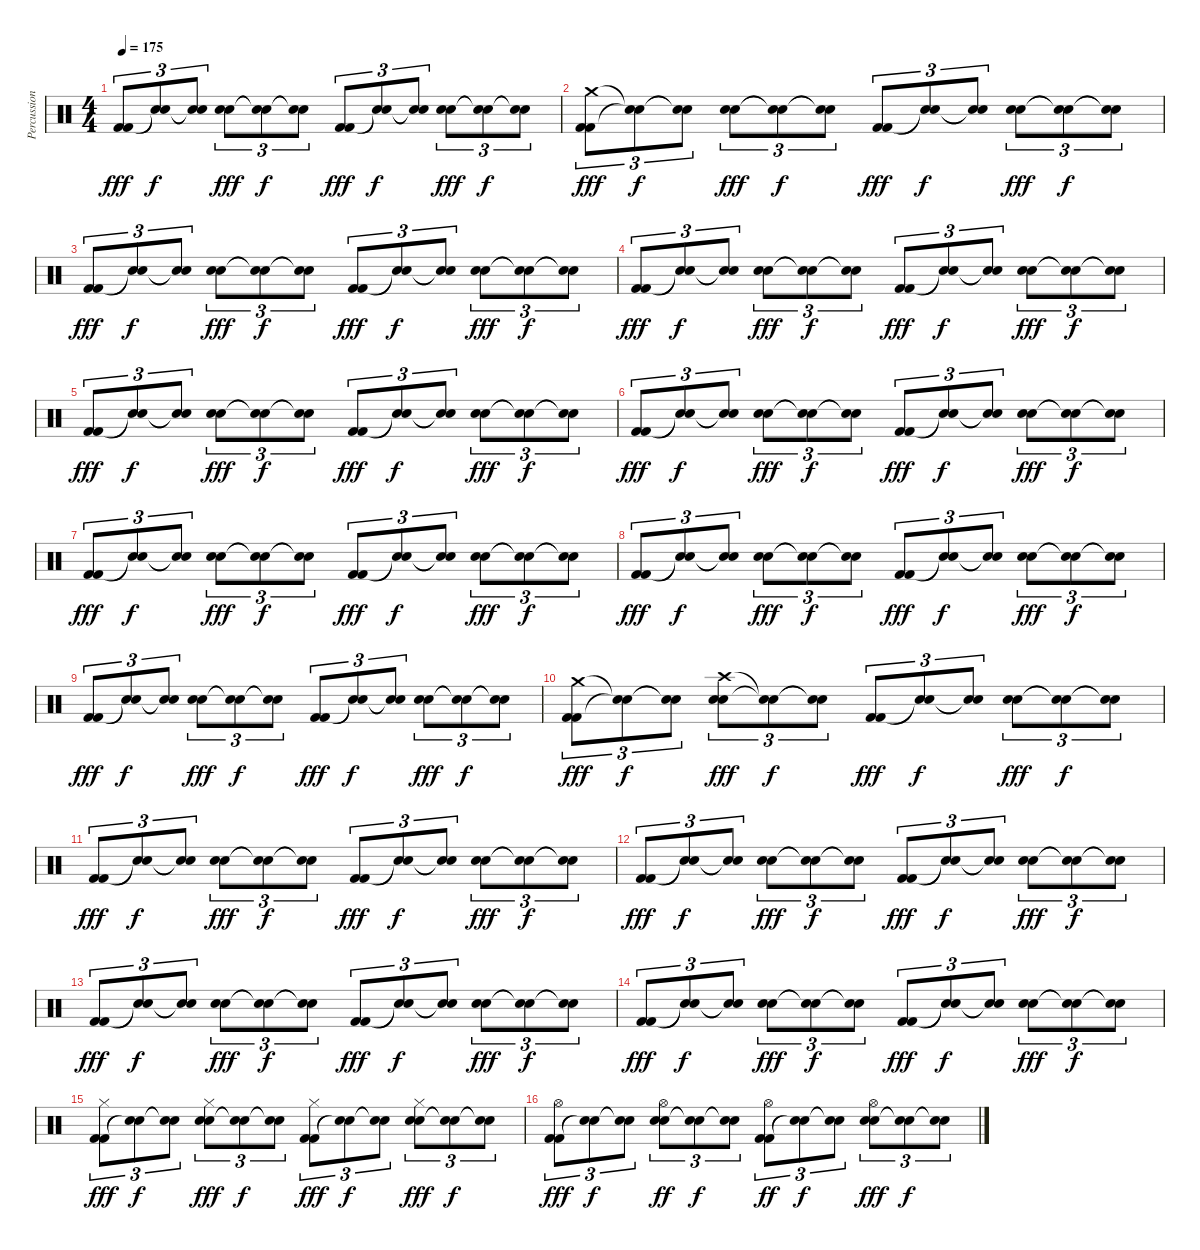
\track ("Percussion" "Percussion") {instrument percussion}
\staff {score}
\articulation defaults
\ts (4 4)
\tempo 175
\clef neutral
\ks c
("Kick (hit) 2" "Kick (hit) 2").8{tu (3 2) dy fff} ("Snare (hit)"{t} "Snare (hit)"{t}).8{tu (3 2) dy f} ("Snare (hit)"{t} "Snare (hit)"{t}).8{tu (3 2)} ("Electric Snare (hit)" "Electric Snare (hit)").8{tu (3 2) dy fff} ("Snare (hit)"{t} "Snare (hit)"{t}).8{tu (3 2) dy f} ("Snare (hit)"{t} "Snare (hit)"{t}).8{tu (3 2)} ("Kick (hit) 2" "Kick (hit) 2").8{tu (3 2) dy fff} ("Snare (hit)"{t} "Snare (hit)"{t}).8{tu (3 2) dy f} ("Snare (hit)"{t} "Snare (hit)"{t}).8{tu (3 2)} ("Electric Snare (hit)" "Electric Snare (hit)").8{tu (3 2) dy fff} ("Snare (hit)"{t} "Snare (hit)"{t}).8{tu (3 2) dy f} ("Snare (hit)"{t} "Snare (hit)"{t}).8{tu (3 2)} |
("Kick (hit) 2" "Crash medium (hit)" "Kick (hit) 2").8{tu (3 2) dy fff} ("Snare (hit)"{t} "Snare (hit)"{t}).8{tu (3 2) dy f} ("Snare (hit)"{t} "Snare (hit)"{t}).8{tu (3 2)} ("Electric Snare (hit)" "Electric Snare (hit)").8{tu (3 2) dy fff} ("Snare (hit)"{t} "Snare (hit)"{t}).8{tu (3 2) dy f} ("Snare (hit)"{t} "Snare (hit)"{t}).8{tu (3 2)} ("Kick (hit) 2" "Kick (hit) 2").8{tu (3 2) dy fff} ("Snare (hit)"{t} "Snare (hit)"{t}).8{tu (3 2) dy f} ("Snare (hit)"{t} "Snare (hit)"{t}).8{tu (3 2)} ("Electric Snare (hit)" "Electric Snare (hit)").8{tu (3 2) dy fff} ("Snare (hit)"{t} "Snare (hit)"{t}).8{tu (3 2) dy f} ("Snare (hit)"{t} "Snare (hit)"{t}).8{tu (3 2)} |
("Kick (hit) 2" "Kick (hit) 2").8{tu (3 2) dy fff} ("Snare (hit)"{t} "Snare (hit)"{t}).8{tu (3 2) dy f} ("Snare (hit)"{t} "Snare (hit)"{t}).8{tu (3 2)} ("Electric Snare (hit)" "Electric Snare (hit)").8{tu (3 2) dy fff} ("Snare (hit)"{t} "Snare (hit)"{t}).8{tu (3 2) dy f} ("Snare (hit)"{t} "Snare (hit)"{t}).8{tu (3 2)} ("Kick (hit) 2" "Kick (hit) 2").8{tu (3 2) dy fff} ("Snare (hit)"{t} "Snare (hit)"{t}).8{tu (3 2) dy f} ("Snare (hit)"{t} "Snare (hit)"{t}).8{tu (3 2)} ("Electric Snare (hit)" "Electric Snare (hit)").8{tu (3 2) dy fff} ("Snare (hit)"{t} "Snare (hit)"{t}).8{tu (3 2) dy f} ("Snare (hit)"{t} "Snare (hit)"{t}).8{tu (3 2)} |
("Kick (hit) 2" "Kick (hit) 2").8{tu (3 2) dy fff} ("Snare (hit)"{t} "Snare (hit)"{t}).8{tu (3 2) dy f} ("Snare (hit)"{t} "Snare (hit)"{t}).8{tu (3 2)} ("Electric Snare (hit)" "Electric Snare (hit)").8{tu (3 2) dy fff} ("Snare (hit)"{t} "Snare (hit)"{t}).8{tu (3 2) dy f} ("Snare (hit)"{t} "Snare (hit)"{t}).8{tu (3 2)} ("Kick (hit) 2" "Kick (hit) 2").8{tu (3 2) dy fff} ("Snare (hit)"{t} "Snare (hit)"{t}).8{tu (3 2) dy f} ("Snare (hit)"{t} "Snare (hit)"{t}).8{tu (3 2)} ("Electric Snare (hit)" "Electric Snare (hit)").8{tu (3 2) dy fff} ("Snare (hit)"{t} "Snare (hit)"{t}).8{tu (3 2) dy f} ("Snare (hit)"{t} "Snare (hit)"{t}).8{tu (3 2)} |
("Kick (hit) 2" "Kick (hit) 2").8{tu (3 2) dy fff} ("Snare (hit)"{t} "Snare (hit)"{t}).8{tu (3 2) dy f} ("Snare (hit)"{t} "Snare (hit)"{t}).8{tu (3 2)} ("Electric Snare (hit)" "Electric Snare (hit)").8{tu (3 2) dy fff} ("Snare (hit)"{t} "Snare (hit)"{t}).8{tu (3 2) dy f} ("Snare (hit)"{t} "Snare (hit)"{t}).8{tu (3 2)} ("Kick (hit) 2" "Kick (hit) 2").8{tu (3 2) dy fff} ("Snare (hit)"{t} "Snare (hit)"{t}).8{tu (3 2) dy f} ("Snare (hit)"{t} "Snare (hit)"{t}).8{tu (3 2)} ("Electric Snare (hit)" "Electric Snare (hit)").8{tu (3 2) dy fff} ("Snare (hit)"{t} "Snare (hit)"{t}).8{tu (3 2) dy f} ("Snare (hit)"{t} "Snare (hit)"{t}).8{tu (3 2)} |
("Kick (hit) 2" "Kick (hit) 2").8{tu (3 2) dy fff} ("Snare (hit)"{t} "Snare (hit)"{t}).8{tu (3 2) dy f} ("Snare (hit)"{t} "Snare (hit)"{t}).8{tu (3 2)} ("Electric Snare (hit)" "Electric Snare (hit)").8{tu (3 2) dy fff} ("Snare (hit)"{t} "Snare (hit)"{t}).8{tu (3 2) dy f} ("Snare (hit)"{t} "Snare (hit)"{t}).8{tu (3 2)} ("Kick (hit) 2" "Kick (hit) 2").8{tu (3 2) dy fff} ("Snare (hit)"{t} "Snare (hit)"{t}).8{tu (3 2) dy f} ("Snare (hit)"{t} "Snare (hit)"{t}).8{tu (3 2)} ("Electric Snare (hit)" "Electric Snare (hit)").8{tu (3 2) dy fff} ("Snare (hit)"{t} "Snare (hit)"{t}).8{tu (3 2) dy f} ("Snare (hit)"{t} "Snare (hit)"{t}).8{tu (3 2)} |
("Kick (hit) 2" "Kick (hit) 2").8{tu (3 2) dy fff} ("Snare (hit)"{t} "Snare (hit)"{t}).8{tu (3 2) dy f} ("Snare (hit)"{t} "Snare (hit)"{t}).8{tu (3 2)} ("Electric Snare (hit)" "Electric Snare (hit)").8{tu (3 2) dy fff} ("Snare (hit)"{t} "Snare (hit)"{t}).8{tu (3 2) dy f} ("Snare (hit)"{t} "Snare (hit)"{t}).8{tu (3 2)} ("Kick (hit) 2" "Kick (hit) 2").8{tu (3 2) dy fff} ("Snare (hit)"{t} "Snare (hit)"{t}).8{tu (3 2) dy f} ("Snare (hit)"{t} "Snare (hit)"{t}).8{tu (3 2)} ("Electric Snare (hit)" "Electric Snare (hit)").8{tu (3 2) dy fff} ("Snare (hit)"{t} "Snare (hit)"{t}).8{tu (3 2) dy f} ("Snare (hit)"{t} "Snare (hit)"{t}).8{tu (3 2)} |
("Kick (hit) 2" "Kick (hit) 2").8{tu (3 2) dy fff} ("Snare (hit)"{t} "Snare (hit)"{t}).8{tu (3 2) dy f} ("Snare (hit)"{t} "Snare (hit)"{t}).8{tu (3 2)} ("Electric Snare (hit)" "Electric Snare (hit)").8{tu (3 2) dy fff} ("Snare (hit)"{t} "Snare (hit)"{t}).8{tu (3 2) dy f} ("Snare (hit)"{t} "Snare (hit)"{t}).8{tu (3 2)} ("Kick (hit) 2" "Kick (hit) 2").8{tu (3 2) dy fff} ("Snare (hit)"{t} "Snare (hit)"{t}).8{tu (3 2) dy f} ("Snare (hit)"{t} "Snare (hit)"{t}).8{tu (3 2)} ("Electric Snare (hit)" "Electric Snare (hit)").8{tu (3 2) dy fff} ("Snare (hit)"{t} "Snare (hit)"{t}).8{tu (3 2) dy f} ("Snare (hit)"{t} "Snare (hit)"{t}).8{tu (3 2)} |
("Kick (hit) 2" "Kick (hit) 2").8{tu (3 2) dy fff} ("Snare (hit)"{t} "Snare (hit)"{t}).8{tu (3 2) dy f} ("Snare (hit)"{t} "Snare (hit)"{t}).8{tu (3 2)} ("Electric Snare (hit)" "Electric Snare (hit)").8{tu (3 2) dy fff} ("Snare (hit)"{t} "Snare (hit)"{t}).8{tu (3 2) dy f} ("Snare (hit)"{t} "Snare (hit)"{t}).8{tu (3 2)} ("Kick (hit) 2" "Kick (hit) 2").8{tu (3 2) dy fff} ("Snare (hit)"{t} "Snare (hit)"{t}).8{tu (3 2) dy f} ("Snare (hit)"{t} "Snare (hit)"{t}).8{tu (3 2)} ("Electric Snare (hit)" "Electric Snare (hit)").8{tu (3 2) dy fff} ("Snare (hit)"{t} "Snare (hit)"{t}).8{tu (3 2) dy f} ("Snare (hit)"{t} "Snare (hit)"{t}).8{tu (3 2)} |
("Kick (hit) 2" "Crash medium (hit)" "Kick (hit) 2").8{tu (3 2) dy fff} ("Snare (hit)"{t} "Snare (hit)"{t}).8{tu (3 2) dy f} ("Snare (hit)"{t} "Snare (hit)"{t}).8{tu (3 2)} ("Electric Snare (hit)" "Crash high (hit)" "Electric Snare (hit)").8{tu (3 2) dy fff} ("Snare (hit)"{t} "Snare (hit)"{t}).8{tu (3 2) dy f} ("Snare (hit)"{t} "Snare (hit)"{t}).8{tu (3 2)} ("Kick (hit) 2" "Kick (hit) 2").8{tu (3 2) dy fff} ("Snare (hit)"{t} "Snare (hit)"{t}).8{tu (3 2) dy f} ("Snare (hit)"{t} "Snare (hit)"{t}).8{tu (3 2)} ("Electric Snare (hit)" "Electric Snare (hit)").8{tu (3 2) dy fff} ("Snare (hit)"{t} "Snare (hit)"{t}).8{tu (3 2) dy f} ("Snare (hit)"{t} "Snare (hit)"{t}).8{tu (3 2)} |
("Kick (hit) 2" "Kick (hit) 2").8{tu (3 2) dy fff} ("Snare (hit)"{t} "Snare (hit)"{t}).8{tu (3 2) dy f} ("Snare (hit)"{t} "Snare (hit)"{t}).8{tu (3 2)} ("Electric Snare (hit)" "Electric Snare (hit)").8{tu (3 2) dy fff} ("Snare (hit)"{t} "Snare (hit)"{t}).8{tu (3 2) dy f} ("Snare (hit)"{t} "Snare (hit)"{t}).8{tu (3 2)} ("Kick (hit) 2" "Kick (hit) 2").8{tu (3 2) dy fff} ("Snare (hit)"{t} "Snare (hit)"{t}).8{tu (3 2) dy f} ("Snare (hit)"{t} "Snare (hit)"{t}).8{tu (3 2)} ("Electric Snare (hit)" "Electric Snare (hit)").8{tu (3 2) dy fff} ("Snare (hit)"{t} "Snare (hit)"{t}).8{tu (3 2) dy f} ("Snare (hit)"{t} "Snare (hit)"{t}).8{tu (3 2)} |
("Kick (hit) 2" "Kick (hit) 2").8{tu (3 2) dy fff} ("Snare (hit)"{t} "Snare (hit)"{t}).8{tu (3 2) dy f} ("Snare (hit)"{t} "Snare (hit)"{t}).8{tu (3 2)} ("Electric Snare (hit)" "Electric Snare (hit)").8{tu (3 2) dy fff} ("Snare (hit)"{t} "Snare (hit)"{t}).8{tu (3 2) dy f} ("Snare (hit)"{t} "Snare (hit)"{t}).8{tu (3 2)} ("Kick (hit) 2" "Kick (hit) 2").8{tu (3 2) dy fff} ("Snare (hit)"{t} "Snare (hit)"{t}).8{tu (3 2) dy f} ("Snare (hit)"{t} "Snare (hit)"{t}).8{tu (3 2)} ("Electric Snare (hit)" "Electric Snare (hit)").8{tu (3 2) dy fff} ("Snare (hit)"{t} "Snare (hit)"{t}).8{tu (3 2) dy f} ("Snare (hit)"{t} "Snare (hit)"{t}).8{tu (3 2)} |
("Kick (hit) 2" "Kick (hit) 2").8{tu (3 2) dy fff} ("Snare (hit)"{t} "Snare (hit)"{t}).8{tu (3 2) dy f} ("Snare (hit)"{t} "Snare (hit)"{t}).8{tu (3 2)} ("Electric Snare (hit)" "Electric Snare (hit)").8{tu (3 2) dy fff} ("Snare (hit)"{t} "Snare (hit)"{t}).8{tu (3 2) dy f} ("Snare (hit)"{t} "Snare (hit)"{t}).8{tu (3 2)} ("Kick (hit) 2" "Kick (hit) 2").8{tu (3 2) dy fff} ("Snare (hit)"{t} "Snare (hit)"{t}).8{tu (3 2) dy f} ("Snare (hit)"{t} "Snare (hit)"{t}).8{tu (3 2)} ("Electric Snare (hit)" "Electric Snare (hit)").8{tu (3 2) dy fff} ("Snare (hit)"{t} "Snare (hit)"{t}).8{tu (3 2) dy f} ("Snare (hit)"{t} "Snare (hit)"{t}).8{tu (3 2)} |
("Kick (hit) 2" "Kick (hit) 2").8{tu (3 2) dy fff} ("Snare (hit)"{t} "Snare (hit)"{t}).8{tu (3 2) dy f} ("Snare (hit)"{t} "Snare (hit)"{t}).8{tu (3 2)} ("Electric Snare (hit)" "Electric Snare (hit)").8{tu (3 2) dy fff} ("Snare (hit)"{t} "Snare (hit)"{t}).8{tu (3 2) dy f} ("Snare (hit)"{t} "Snare (hit)"{t}).8{tu (3 2)} ("Kick (hit) 2" "Kick (hit) 2").8{tu (3 2) dy fff} ("Snare (hit)"{t} "Snare (hit)"{t}).8{tu (3 2) dy f} ("Snare (hit)"{t} "Snare (hit)"{t}).8{tu (3 2)} ("Electric Snare (hit)" "Electric Snare (hit)").8{tu (3 2) dy fff} ("Snare (hit)"{t} "Snare (hit)"{t}).8{tu (3 2) dy f} ("Snare (hit)"{t} "Snare (hit)"{t}).8{tu (3 2)} |
("Kick (hit) 2" "Kick (hit) 2" "Hi-Hat (closed)").8{tu (3 2) dy fff} ("Snare (hit)"{t} "Snare (hit)"{t}).8{tu (3 2) dy f} ("Snare (hit)"{t} "Snare (hit)"{t}).8{tu (3 2)} ("Electric Snare (hit)" "Electric Snare (hit)" "Hi-Hat (closed)").8{tu (3 2) dy fff} ("Snare (hit)"{t} "Snare (hit)"{t}).8{tu (3 2) dy f} ("Snare (hit)"{t} "Snare (hit)"{t}).8{tu (3 2)} ("Kick (hit) 2" "Kick (hit) 2" "Hi-Hat (closed)").8{tu (3 2) dy fff} ("Snare (hit)"{t} "Snare (hit)"{t}).8{tu (3 2) dy f} ("Snare (hit)"{t} "Snare (hit)"{t}).8{tu (3 2)} ("Electric Snare (hit)" "Electric Snare (hit)" "Hi-Hat (closed)").8{tu (3 2) dy fff} ("Snare (hit)"{t} "Snare (hit)"{t}).8{tu (3 2) dy f} ("Snare (hit)"{t} "Snare (hit)"{t}).8{tu (3 2)} |
("Kick (hit) 2" "Kick (hit) 2" "Hi-Hat (open)").8{tu (3 2) dy fff} ("Snare (hit)"{t} "Snare (hit)"{t}).8{tu (3 2) dy f} ("Snare (hit)"{t} "Snare (hit)"{t}).8{tu (3 2)} ("Electric Snare (hit)" "Electric Snare (hit)" "Hi-Hat (open)").8{tu (3 2) dy ff} ("Snare (hit)"{t} "Snare (hit)"{t}).8{tu (3 2) dy f} ("Snare (hit)"{t} "Snare (hit)"{t}).8{tu (3 2)} ("Kick (hit) 2" "Kick (hit) 2" "Hi-Hat (open)").8{tu (3 2) dy ff} ("Snare (hit)"{t} "Snare (hit)"{t}).8{tu (3 2) dy f} ("Snare (hit)"{t} "Snare (hit)"{t}).8{tu (3 2)} ("Electric Snare (hit)" "Electric Snare (hit)" "Hi-Hat (open)").8{tu (3 2) dy fff} ("Snare (hit)"{t} "Snare (hit)"{t}).8{tu (3 2) dy f} ("Snare (hit)"{t} "Snare (hit)"{t}).8{tu (3 2)}
